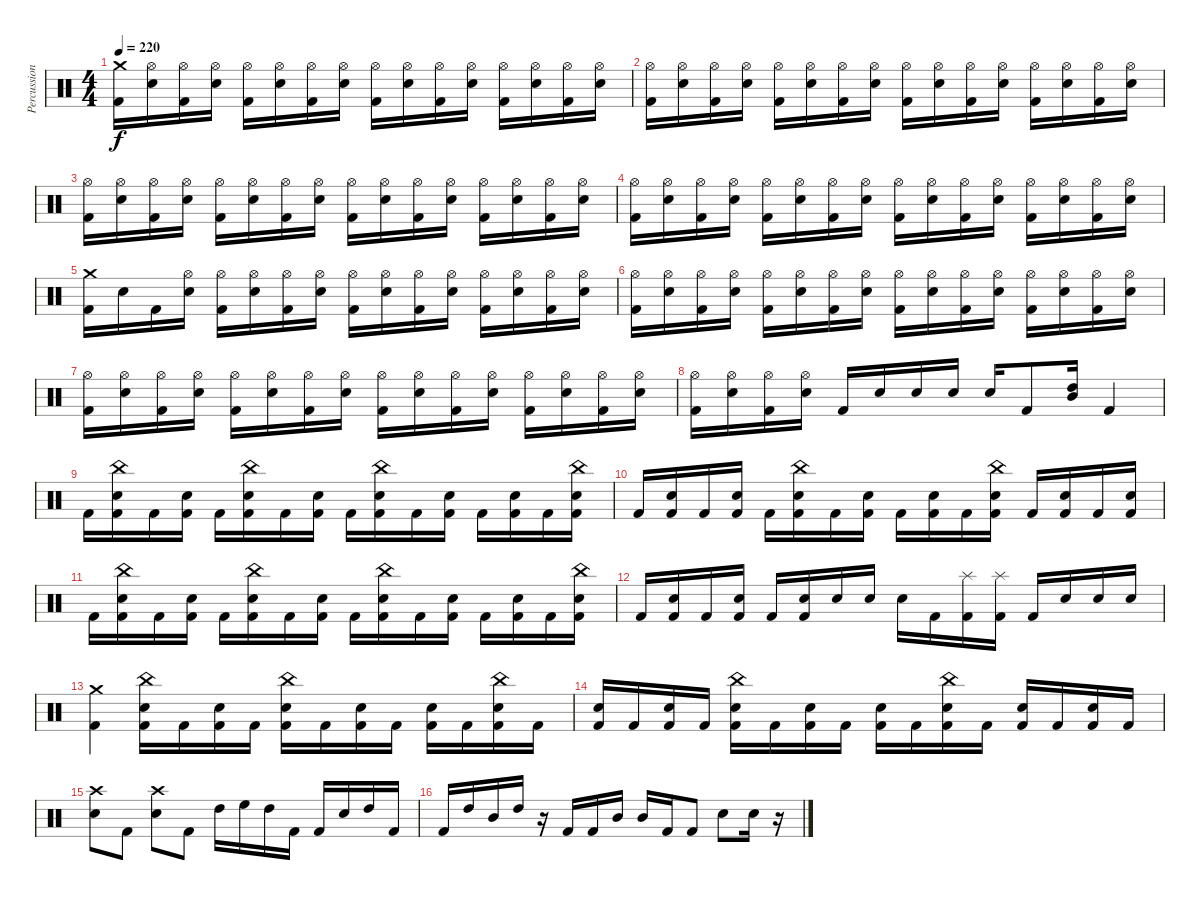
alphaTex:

\track ("Percussion (Dan Wilding)" "Percussion") {instrument percussion}
\staff {score}
\articulation defaults
\ts (4 4)
\tempo 220
\clef neutral
\ks c
("Crash medium (hit)" "Kick (hit) 2").16{dy f} ("Hi-Hat (open)" "Electric Snare (hit)").16 ("Hi-Hat (open)" "Kick (hit) 2").16 ("Hi-Hat (open)" "Electric Snare (hit)").16 ("Hi-Hat (open)" "Kick (hit) 2").16 ("Hi-Hat (open)" "Electric Snare (hit)").16 ("Hi-Hat (open)" "Kick (hit) 2").16 ("Hi-Hat (open)" "Electric Snare (hit)").16 ("Hi-Hat (open)" "Kick (hit) 2").16 ("Hi-Hat (open)" "Electric Snare (hit)").16 ("Hi-Hat (open)" "Kick (hit) 2").16 ("Hi-Hat (open)" "Electric Snare (hit)").16 ("Hi-Hat (open)" "Kick (hit) 2").16 ("Hi-Hat (open)" "Electric Snare (hit)").16 ("Hi-Hat (open)" "Kick (hit) 2").16 ("Hi-Hat (open)" "Electric Snare (hit)").16 |
("Hi-Hat (open)" "Kick (hit) 2").16 ("Hi-Hat (open)" "Electric Snare (hit)").16 ("Hi-Hat (open)" "Kick (hit) 2").16 ("Hi-Hat (open)" "Electric Snare (hit)").16 ("Hi-Hat (open)" "Kick (hit) 2").16 ("Hi-Hat (open)" "Electric Snare (hit)").16 ("Hi-Hat (open)" "Kick (hit) 2").16 ("Hi-Hat (open)" "Electric Snare (hit)").16 ("Hi-Hat (open)" "Kick (hit) 2").16 ("Hi-Hat (open)" "Electric Snare (hit)").16 ("Hi-Hat (open)" "Kick (hit) 2").16 ("Hi-Hat (open)" "Electric Snare (hit)").16 ("Hi-Hat (open)" "Kick (hit) 2").16 ("Hi-Hat (open)" "Electric Snare (hit)").16 ("Hi-Hat (open)" "Kick (hit) 2").16 ("Hi-Hat (open)" "Electric Snare (hit)").16 |
("Hi-Hat (open)" "Kick (hit) 2").16 ("Hi-Hat (open)" "Electric Snare (hit)").16 ("Hi-Hat (open)" "Kick (hit) 2").16 ("Hi-Hat (open)" "Electric Snare (hit)").16 ("Hi-Hat (open)" "Kick (hit) 2").16 ("Hi-Hat (open)" "Electric Snare (hit)").16 ("Hi-Hat (open)" "Kick (hit) 2").16 ("Hi-Hat (open)" "Electric Snare (hit)").16 ("Hi-Hat (open)" "Kick (hit) 2").16 ("Hi-Hat (open)" "Electric Snare (hit)").16 ("Hi-Hat (open)" "Kick (hit) 2").16 ("Hi-Hat (open)" "Electric Snare (hit)").16 ("Hi-Hat (open)" "Kick (hit) 2").16 ("Hi-Hat (open)" "Electric Snare (hit)").16 ("Hi-Hat (open)" "Kick (hit) 2").16 ("Hi-Hat (open)" "Electric Snare (hit)").16 |
("Hi-Hat (open)" "Kick (hit) 2").16 ("Hi-Hat (open)" "Electric Snare (hit)").16 ("Hi-Hat (open)" "Kick (hit) 2").16 ("Hi-Hat (open)" "Electric Snare (hit)").16 ("Hi-Hat (open)" "Kick (hit) 2").16 ("Hi-Hat (open)" "Electric Snare (hit)").16 ("Hi-Hat (open)" "Kick (hit) 2").16 ("Hi-Hat (open)" "Electric Snare (hit)").16 ("Hi-Hat (open)" "Kick (hit) 2").16 ("Hi-Hat (open)" "Electric Snare (hit)").16 ("Hi-Hat (open)" "Kick (hit) 2").16 ("Hi-Hat (open)" "Electric Snare (hit)").16 ("Hi-Hat (open)" "Kick (hit) 2").16 ("Hi-Hat (open)" "Electric Snare (hit)").16 ("Hi-Hat (open)" "Kick (hit) 2").16 ("Hi-Hat (open)" "Electric Snare (hit)").16 |
("Crash medium (hit)" "Kick (hit) 2").16 "Electric Snare (hit)".16 "Kick (hit) 2".16 ("Hi-Hat (open)" "Electric Snare (hit)").16 ("Hi-Hat (open)" "Kick (hit) 2").16 ("Hi-Hat (open)" "Electric Snare (hit)").16 ("Hi-Hat (open)" "Kick (hit) 2").16 ("Hi-Hat (open)" "Electric Snare (hit)").16 ("Hi-Hat (open)" "Kick (hit) 2").16 ("Hi-Hat (open)" "Electric Snare (hit)").16 ("Hi-Hat (open)" "Kick (hit) 2").16 ("Hi-Hat (open)" "Electric Snare (hit)").16 ("Hi-Hat (open)" "Kick (hit) 2").16 ("Hi-Hat (open)" "Electric Snare (hit)").16 ("Hi-Hat (open)" "Kick (hit) 2").16 ("Hi-Hat (open)" "Electric Snare (hit)").16 |
("Hi-Hat (open)" "Kick (hit) 2").16 ("Hi-Hat (open)" "Electric Snare (hit)").16 ("Hi-Hat (open)" "Kick (hit) 2").16 ("Hi-Hat (open)" "Electric Snare (hit)").16 ("Hi-Hat (open)" "Kick (hit) 2").16 ("Hi-Hat (open)" "Electric Snare (hit)").16 ("Hi-Hat (open)" "Kick (hit) 2").16 ("Hi-Hat (open)" "Electric Snare (hit)").16 ("Hi-Hat (open)" "Kick (hit) 2").16 ("Hi-Hat (open)" "Electric Snare (hit)").16 ("Hi-Hat (open)" "Kick (hit) 2").16 ("Hi-Hat (open)" "Electric Snare (hit)").16 ("Hi-Hat (open)" "Kick (hit) 2").16 ("Hi-Hat (open)" "Electric Snare (hit)").16 ("Hi-Hat (open)" "Kick (hit) 2").16 ("Hi-Hat (open)" "Electric Snare (hit)").16 |
("Hi-Hat (open)" "Kick (hit) 2").16 ("Hi-Hat (open)" "Electric Snare (hit)").16 ("Hi-Hat (open)" "Kick (hit) 2").16 ("Hi-Hat (open)" "Electric Snare (hit)").16 ("Hi-Hat (open)" "Kick (hit) 2").16 ("Hi-Hat (open)" "Electric Snare (hit)").16 ("Hi-Hat (open)" "Kick (hit) 2").16 ("Hi-Hat (open)" "Electric Snare (hit)").16 ("Hi-Hat (open)" "Kick (hit) 2").16 ("Hi-Hat (open)" "Electric Snare (hit)").16 ("Hi-Hat (open)" "Kick (hit) 2").16 ("Hi-Hat (open)" "Electric Snare (hit)").16 ("Hi-Hat (open)" "Kick (hit) 2").16 ("Hi-Hat (open)" "Electric Snare (hit)").16 ("Hi-Hat (open)" "Kick (hit) 2").16 ("Hi-Hat (open)" "Electric Snare (hit)").16 |
("Hi-Hat (open)" "Kick (hit) 2").16 ("Hi-Hat (open)" "Electric Snare (hit)").16 ("Hi-Hat (open)" "Kick (hit) 2").16 ("Hi-Hat (open)" "Electric Snare (hit)").16 "Kick (hit) 2".16 "Electric Snare (hit)".16 "Electric Snare (hit)".16 "Electric Snare (hit)".16 "Electric Snare (hit)".16 "Kick (hit) 2".8 ("High Tom (hit)" "Mid Tom (hit)").16 "Kick (hit) 2".4 |
"Kick (hit) 2".16 ("China (hit)" "Electric Snare (hit)" "Kick (hit) 2").16 "Kick (hit) 2".16 ("Electric Snare (hit)" "Kick (hit) 2").16 "Kick (hit) 2".16 ("China (hit)" "Electric Snare (hit)" "Kick (hit) 2").16 "Kick (hit) 2".16 ("Electric Snare (hit)" "Kick (hit) 2").16 "Kick (hit) 2".16 ("China (hit)" "Electric Snare (hit)" "Kick (hit) 2").16 "Kick (hit) 2".16 ("Electric Snare (hit)" "Kick (hit) 2").16 "Kick (hit) 2".16 ("Electric Snare (hit)" "Kick (hit) 2").16 "Kick (hit) 2".16 ("China (hit)" "Electric Snare (hit)" "Kick (hit) 2").16 |
"Kick (hit) 2".16 ("Electric Snare (hit)" "Kick (hit) 2").16 "Kick (hit) 2".16 ("Electric Snare (hit)" "Kick (hit) 2").16 "Kick (hit) 2".16 ("China (hit)" "Electric Snare (hit)" "Kick (hit) 2").16 "Kick (hit) 2".16 ("Electric Snare (hit)" "Kick (hit) 2").16 "Kick (hit) 2".16 ("Electric Snare (hit)" "Kick (hit) 2").16 "Kick (hit) 2".16 ("China (hit)" "Electric Snare (hit)" "Kick (hit) 2").16 "Kick (hit) 2".16 ("Electric Snare (hit)" "Kick (hit) 2").16 "Kick (hit) 2".16 ("Electric Snare (hit)" "Kick (hit) 2").16 |
"Kick (hit) 2".16 ("China (hit)" "Electric Snare (hit)" "Kick (hit) 2").16 "Kick (hit) 2".16 ("Electric Snare (hit)" "Kick (hit) 2").16 "Kick (hit) 2".16 ("China (hit)" "Electric Snare (hit)" "Kick (hit) 2").16 "Kick (hit) 2".16 ("Electric Snare (hit)" "Kick (hit) 2").16 "Kick (hit) 2".16 ("China (hit)" "Electric Snare (hit)" "Kick (hit) 2").16 "Kick (hit) 2".16 ("Electric Snare (hit)" "Kick (hit) 2").16 "Kick (hit) 2".16 ("Electric Snare (hit)" "Kick (hit) 2").16 "Kick (hit) 2".16 ("China (hit)" "Electric Snare (hit)" "Kick (hit) 2").16 |
"Kick (hit) 2".16 ("Electric Snare (hit)" "Kick (hit) 2").16 "Kick (hit) 2".16 ("Electric Snare (hit)" "Kick (hit) 2").16 "Kick (hit) 2".16 ("Electric Snare (hit)" "Kick (hit) 2").16 "Electric Snare (hit)".16 "Electric Snare (hit)".16 "Electric Snare (hit)".16 "Kick (hit) 2".16 ("Splash (hit)" "Kick (hit) 2").16 ("Splash (hit)" "Kick (hit) 2").16 "Kick (hit) 2".16 "Electric Snare (hit)".16 "Electric Snare (hit)".16 "Electric Snare (hit)".16 |
("Crash medium (hit)" "Kick (hit) 2").4 ("China (hit)" "Electric Snare (hit)" "Kick (hit) 2").16 "Kick (hit) 2".16 ("Electric Snare (hit)" "Kick (hit) 2").16 "Kick (hit) 2".16 ("China (hit)" "Electric Snare (hit)" "Kick (hit) 2").16 "Kick (hit) 2".16 ("Electric Snare (hit)" "Kick (hit) 2").16 "Kick (hit) 2".16 ("Electric Snare (hit)" "Kick (hit) 2").16 "Kick (hit) 2".16 ("China (hit)" "Electric Snare (hit)" "Kick (hit) 2").16 "Kick (hit) 2".16 |
("Electric Snare (hit)" "Kick (hit) 2").16 "Kick (hit) 2".16 ("Electric Snare (hit)" "Kick (hit) 2").16 "Kick (hit) 2".16 ("China (hit)" "Electric Snare (hit)" "Kick (hit) 2").16 "Kick (hit) 2".16 ("Electric Snare (hit)" "Kick (hit) 2").16 "Kick (hit) 2".16 ("Electric Snare (hit)" "Kick (hit) 2").16 "Kick (hit) 2".16 ("China (hit)" "Electric Snare (hit)" "Kick (hit) 2").16 "Kick (hit) 2".16 ("Electric Snare (hit)" "Kick (hit) 2").16 "Kick (hit) 2".16 ("Electric Snare (hit)" "Kick (hit) 2").16 "Kick (hit) 2".16 |
("Crash high (hit)" "Electric Snare (hit)").8 "Kick (hit) 2".8 ("Crash high (hit)" "Electric Snare (hit)").8 "Kick (hit) 2".8 "High Tom (hit)".16 "High Floor Tom (hit)".16 "High Tom (hit)".16 "Kick (hit) 2".16 "Kick (hit) 2".16 "Electric Snare (hit)".16 "High Tom (hit)".16 "Kick (hit) 2".16 |
"Kick (hit) 2".16 "High Tom (hit)".16 "Mid Tom (hit)".16 "High Tom (hit)".16 r.16 "Kick (hit) 2".16 "Kick (hit) 2".16 "Mid Tom (hit)".16 "Mid Tom (hit)".16 "Kick (hit) 2".16 "Kick (hit) 2".8 "Electric Snare (hit)".8 "Electric Snare (hit)".16 r.16
